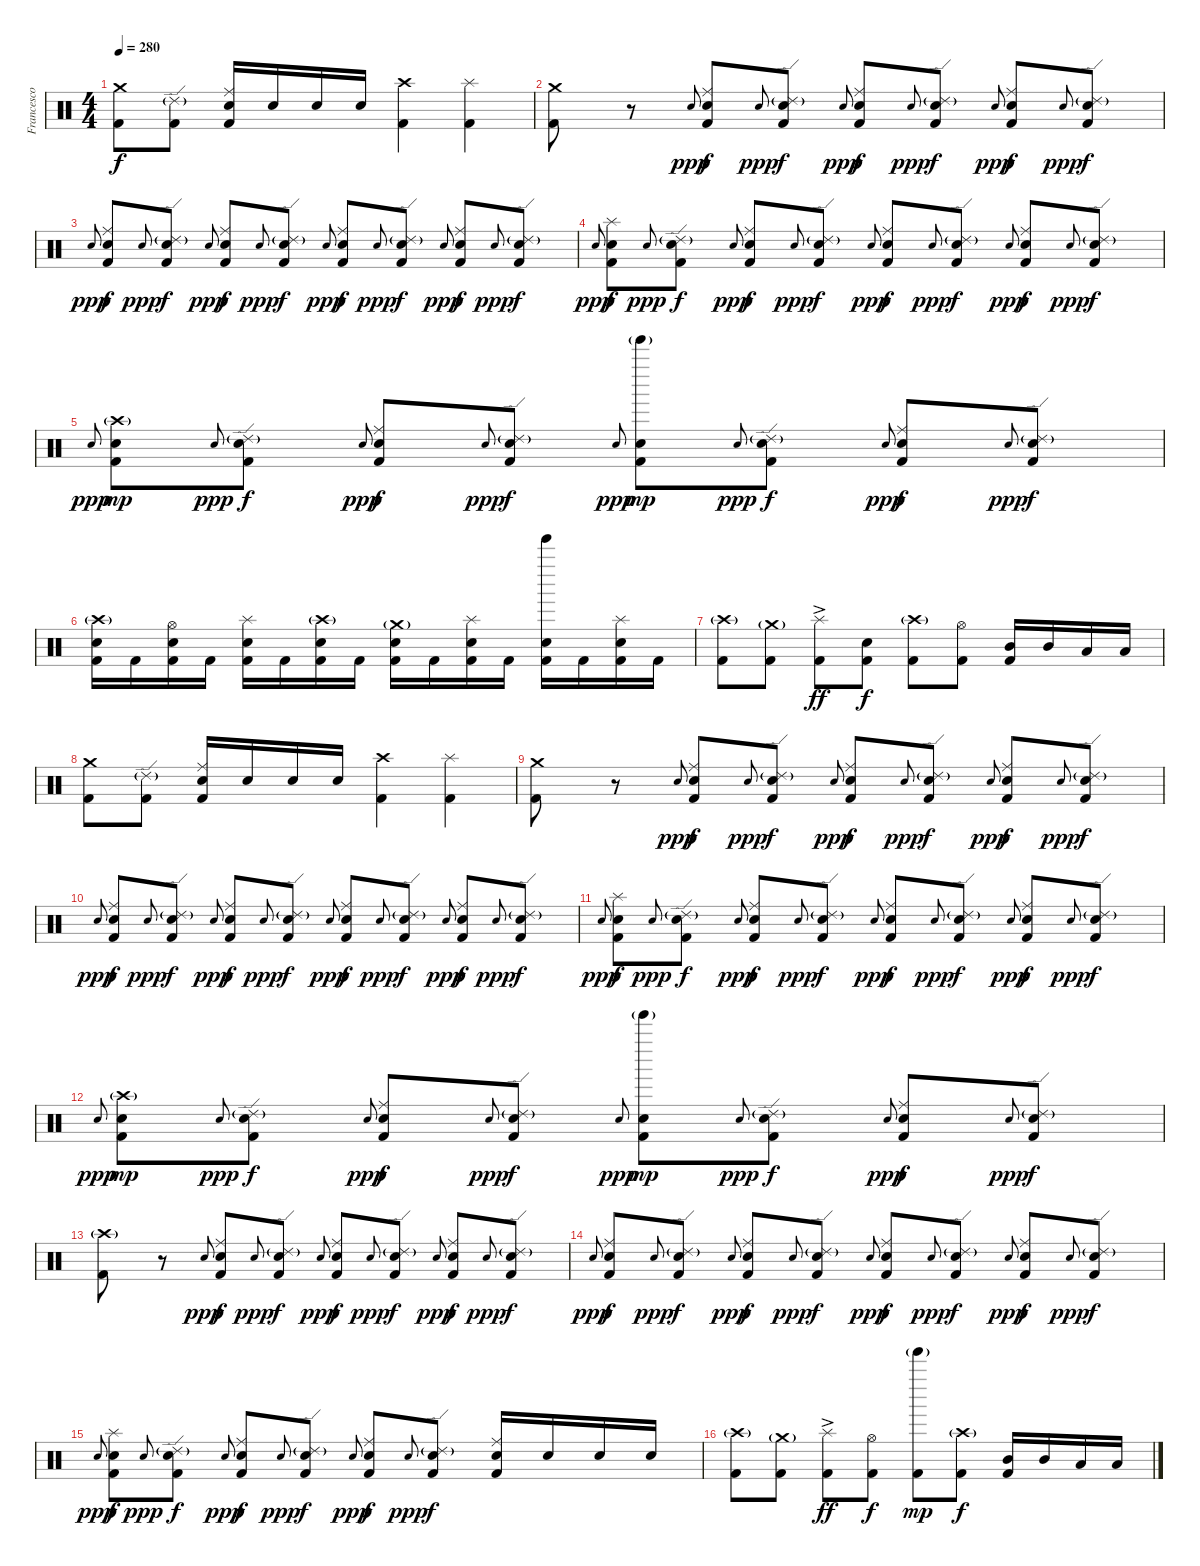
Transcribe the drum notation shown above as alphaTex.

\track ("Francesco Ferrini" "Francesco ") {instrument percussion}
\staff {score}
\articulation defaults
\ts (4 4)
\tempo 280
\clef neutral
\ks c
("Crash medium (hit)" "Kick (hit) 2").8{dy f} ("Ride (edge) 2"{g} "Kick (hit) 2").8 ("Ride (middle)" "Electric Snare (hit)" "Kick (hit) 2").16 "Electric Snare (hit)".16 "Electric Snare (hit)".16 "Electric Snare (hit)".16 ("Crash high (hit)" "Kick (hit) 2").4 ("Splash (hit)" "Kick (hit) 2").4 |
("Crash medium (hit)" "Kick (hit) 2").8 r.8 "Electric Snare (hit)"{h}.8{gr onbeat dy ppp} ("Ride (middle)" "Electric Snare (hit)" "Kick (hit) 2").8{dy f} "Electric Snare (hit)"{h}.8{gr onbeat dy ppp} ("Ride (edge) 2"{g} "Electric Snare (hit)" "Kick (hit) 2").8{dy f} "Electric Snare (hit)"{h}.8{gr onbeat dy ppp} ("Ride (middle)" "Electric Snare (hit)" "Kick (hit) 2").8{dy f} "Electric Snare (hit)"{h}.8{gr onbeat dy ppp} ("Ride (edge) 2"{g} "Electric Snare (hit)" "Kick (hit) 2").8{dy f} "Electric Snare (hit)"{h}.8{gr onbeat dy ppp} ("Ride (middle)" "Electric Snare (hit)" "Kick (hit) 2").8{dy f} "Electric Snare (hit)"{h}.8{gr onbeat dy ppp} ("Ride (edge) 2"{g} "Electric Snare (hit)" "Kick (hit) 2").8{dy f} |
"Electric Snare (hit)"{h}.8{gr onbeat dy ppp} ("Ride (middle)" "Electric Snare (hit)" "Kick (hit) 2").8{dy f} "Electric Snare (hit)"{h}.8{gr onbeat dy ppp} ("Ride (edge) 2"{g} "Electric Snare (hit)" "Kick (hit) 2").8{dy f} "Electric Snare (hit)"{h}.8{gr onbeat dy ppp} ("Ride (middle)" "Electric Snare (hit)" "Kick (hit) 2").8{dy f} "Electric Snare (hit)"{h}.8{gr onbeat dy ppp} ("Ride (edge) 2"{g} "Electric Snare (hit)" "Kick (hit) 2").8{dy f} "Electric Snare (hit)"{h}.8{gr onbeat dy ppp} ("Ride (middle)" "Electric Snare (hit)" "Kick (hit) 2").8{dy f} "Electric Snare (hit)"{h}.8{gr onbeat dy ppp} ("Ride (edge) 2"{g} "Electric Snare (hit)" "Kick (hit) 2").8{dy f} "Electric Snare (hit)"{h}.8{gr onbeat dy ppp} ("Ride (middle)" "Electric Snare (hit)" "Kick (hit) 2").8{dy f} "Electric Snare (hit)"{h}.8{gr onbeat dy ppp} ("Ride (edge) 2"{g} "Electric Snare (hit)" "Kick (hit) 2").8{dy f} |
"Electric Snare (hit)"{h}.8{gr onbeat dy ppp} ("Splash (hit)" "Electric Snare (hit)" "Kick (hit) 2").8{dy f} "Electric Snare (hit)"{h}.8{gr onbeat dy ppp} ("Ride (edge) 2"{g} "Electric Snare (hit)" "Kick (hit) 2").8{dy f} "Electric Snare (hit)"{h}.8{gr onbeat dy ppp} ("Ride (middle)" "Electric Snare (hit)" "Kick (hit) 2").8{dy f} "Electric Snare (hit)"{h}.8{gr onbeat dy ppp} ("Ride (edge) 2"{g} "Electric Snare (hit)" "Kick (hit) 2").8{dy f} "Electric Snare (hit)"{h}.8{gr onbeat dy ppp} ("Ride (middle)" "Electric Snare (hit)" "Kick (hit) 2").8{dy f} "Electric Snare (hit)"{h}.8{gr onbeat dy ppp} ("Ride (edge) 2"{g} "Electric Snare (hit)" "Kick (hit) 2").8{dy f} "Electric Snare (hit)"{h}.8{gr onbeat dy ppp} ("Ride (middle)" "Electric Snare (hit)" "Kick (hit) 2").8{dy f} "Electric Snare (hit)"{h}.8{gr onbeat dy ppp} ("Ride (edge) 2"{g} "Electric Snare (hit)" "Kick (hit) 2").8{dy f} |
"Electric Snare (hit)"{h}.8{gr onbeat dy ppp} ("Crash high (hit)"{g} "Electric Snare (hit)" "Kick (hit) 2").8{dy mp} "Electric Snare (hit)"{h}.8{gr onbeat dy ppp} ("Ride (edge) 2"{g} "Electric Snare (hit)" "Kick (hit) 2").8{dy f} "Electric Snare (hit)"{h}.8{gr onbeat dy ppp} ("Ride (middle)" "Electric Snare (hit)" "Kick (hit) 2").8{dy f} "Electric Snare (hit)"{h}.8{gr onbeat dy ppp} ("Ride (edge) 2"{g} "Electric Snare (hit)" "Kick (hit) 2").8{dy f} "Electric Snare (hit)"{h}.8{gr onbeat dy ppp} ("Tinkle Bell (hit)"{g} "Electric Snare (hit)" "Kick (hit) 2").8{dy mp} "Electric Snare (hit)"{h}.8{gr onbeat dy ppp} ("Ride (edge) 2"{g} "Electric Snare (hit)" "Kick (hit) 2").8{dy f} "Electric Snare (hit)"{h}.8{gr onbeat dy ppp} ("Ride (middle)" "Electric Snare (hit)" "Kick (hit) 2").8{dy f} "Electric Snare (hit)"{h}.8{gr onbeat dy ppp} ("Ride (edge) 2"{g} "Electric Snare (hit)" "Kick (hit) 2").8{dy f} |
("Crash high (hit)"{g} "Electric Snare (hit)" "Kick (hit) 2").16 "Kick (hit) 2".16 ("Hi-Hat (open)" "Electric Snare (hit)" "Kick (hit) 2").16 "Kick (hit) 2".16 ("Splash (hit)" "Electric Snare (hit)" "Kick (hit) 2").16 "Kick (hit) 2".16 ("Crash high (hit)"{g} "Electric Snare (hit)" "Kick (hit) 2").16 "Kick (hit) 2".16 ("Crash medium (hit)"{g} "Electric Snare (hit)" "Kick (hit) 2").16 "Kick (hit) 2".16 ("Splash (hit)" "Electric Snare (hit)" "Kick (hit) 2").16 "Kick (hit) 2".16 ("Tinkle Bell (hit)" "Electric Snare (hit)" "Kick (hit) 2").16 "Kick (hit) 2".16 ("Splash (hit)" "Electric Snare (hit)" "Kick (hit) 2").16 "Kick (hit) 2".16 |
("Crash high (hit)"{g} "Kick (hit) 2").8 ("Crash medium (hit)"{g} "Kick (hit) 2").8 ("Splash (hit)"{ac} "Kick (hit) 2").8{dy ff} ("Electric Snare (hit)" "Kick (hit) 2").8{dy f} ("Crash high (hit)"{g} "Kick (hit) 2").8 ("Hi-Hat (open)" "Kick (hit) 2").8 ("Mid Tom (hit)" "Kick (hit) 2").16 "Mid Tom (hit)".16 "Low Tom (hit)".16 "Low Tom (hit)".16 |
("Crash medium (hit)" "Kick (hit) 2").8 ("Ride (edge) 2"{g} "Kick (hit) 2").8 ("Ride (middle)" "Electric Snare (hit)" "Kick (hit) 2").16 "Electric Snare (hit)".16 "Electric Snare (hit)".16 "Electric Snare (hit)".16 ("Crash high (hit)" "Kick (hit) 2").4 ("Splash (hit)" "Kick (hit) 2").4 |
("Crash medium (hit)" "Kick (hit) 2").8 r.8 "Electric Snare (hit)"{h}.8{gr onbeat dy ppp} ("Ride (middle)" "Electric Snare (hit)" "Kick (hit) 2").8{dy f} "Electric Snare (hit)"{h}.8{gr onbeat dy ppp} ("Ride (edge) 2"{g} "Electric Snare (hit)" "Kick (hit) 2").8{dy f} "Electric Snare (hit)"{h}.8{gr onbeat dy ppp} ("Ride (middle)" "Electric Snare (hit)" "Kick (hit) 2").8{dy f} "Electric Snare (hit)"{h}.8{gr onbeat dy ppp} ("Ride (edge) 2"{g} "Electric Snare (hit)" "Kick (hit) 2").8{dy f} "Electric Snare (hit)"{h}.8{gr onbeat dy ppp} ("Ride (middle)" "Electric Snare (hit)" "Kick (hit) 2").8{dy f} "Electric Snare (hit)"{h}.8{gr onbeat dy ppp} ("Ride (edge) 2"{g} "Electric Snare (hit)" "Kick (hit) 2").8{dy f} |
"Electric Snare (hit)"{h}.8{gr onbeat dy ppp} ("Ride (middle)" "Electric Snare (hit)" "Kick (hit) 2").8{dy f} "Electric Snare (hit)"{h}.8{gr onbeat dy ppp} ("Ride (edge) 2"{g} "Electric Snare (hit)" "Kick (hit) 2").8{dy f} "Electric Snare (hit)"{h}.8{gr onbeat dy ppp} ("Ride (middle)" "Electric Snare (hit)" "Kick (hit) 2").8{dy f} "Electric Snare (hit)"{h}.8{gr onbeat dy ppp} ("Ride (edge) 2"{g} "Electric Snare (hit)" "Kick (hit) 2").8{dy f} "Electric Snare (hit)"{h}.8{gr onbeat dy ppp} ("Ride (middle)" "Electric Snare (hit)" "Kick (hit) 2").8{dy f} "Electric Snare (hit)"{h}.8{gr onbeat dy ppp} ("Ride (edge) 2"{g} "Electric Snare (hit)" "Kick (hit) 2").8{dy f} "Electric Snare (hit)"{h}.8{gr onbeat dy ppp} ("Ride (middle)" "Electric Snare (hit)" "Kick (hit) 2").8{dy f} "Electric Snare (hit)"{h}.8{gr onbeat dy ppp} ("Ride (edge) 2"{g} "Electric Snare (hit)" "Kick (hit) 2").8{dy f} |
"Electric Snare (hit)"{h}.8{gr onbeat dy ppp} ("Splash (hit)" "Electric Snare (hit)" "Kick (hit) 2").8{dy f} "Electric Snare (hit)"{h}.8{gr onbeat dy ppp} ("Ride (edge) 2"{g} "Electric Snare (hit)" "Kick (hit) 2").8{dy f} "Electric Snare (hit)"{h}.8{gr onbeat dy ppp} ("Ride (middle)" "Electric Snare (hit)" "Kick (hit) 2").8{dy f} "Electric Snare (hit)"{h}.8{gr onbeat dy ppp} ("Ride (edge) 2"{g} "Electric Snare (hit)" "Kick (hit) 2").8{dy f} "Electric Snare (hit)"{h}.8{gr onbeat dy ppp} ("Ride (middle)" "Electric Snare (hit)" "Kick (hit) 2").8{dy f} "Electric Snare (hit)"{h}.8{gr onbeat dy ppp} ("Ride (edge) 2"{g} "Electric Snare (hit)" "Kick (hit) 2").8{dy f} "Electric Snare (hit)"{h}.8{gr onbeat dy ppp} ("Ride (middle)" "Electric Snare (hit)" "Kick (hit) 2").8{dy f} "Electric Snare (hit)"{h}.8{gr onbeat dy ppp} ("Ride (edge) 2"{g} "Electric Snare (hit)" "Kick (hit) 2").8{dy f} |
"Electric Snare (hit)"{h}.8{gr onbeat dy ppp} ("Crash high (hit)"{g} "Electric Snare (hit)" "Kick (hit) 2").8{dy mp} "Electric Snare (hit)"{h}.8{gr onbeat dy ppp} ("Ride (edge) 2"{g} "Electric Snare (hit)" "Kick (hit) 2").8{dy f} "Electric Snare (hit)"{h}.8{gr onbeat dy ppp} ("Ride (middle)" "Electric Snare (hit)" "Kick (hit) 2").8{dy f} "Electric Snare (hit)"{h}.8{gr onbeat dy ppp} ("Ride (edge) 2"{g} "Electric Snare (hit)" "Kick (hit) 2").8{dy f} "Electric Snare (hit)"{h}.8{gr onbeat dy ppp} ("Tinkle Bell (hit)"{g} "Electric Snare (hit)" "Kick (hit) 2").8{dy mp} "Electric Snare (hit)"{h}.8{gr onbeat dy ppp} ("Ride (edge) 2"{g} "Electric Snare (hit)" "Kick (hit) 2").8{dy f} "Electric Snare (hit)"{h}.8{gr onbeat dy ppp} ("Ride (middle)" "Electric Snare (hit)" "Kick (hit) 2").8{dy f} "Electric Snare (hit)"{h}.8{gr onbeat dy ppp} ("Ride (edge) 2"{g} "Electric Snare (hit)" "Kick (hit) 2").8{dy f} |
("Crash high (hit)"{g} "Kick (hit) 2").8 r.8 "Electric Snare (hit)"{h}.8{gr onbeat dy ppp} ("Ride (middle)" "Electric Snare (hit)" "Kick (hit) 2").8{dy f} "Electric Snare (hit)"{h}.8{gr onbeat dy ppp} ("Ride (edge) 2"{g} "Electric Snare (hit)" "Kick (hit) 2").8{dy f} "Electric Snare (hit)"{h}.8{gr onbeat dy ppp} ("Ride (middle)" "Electric Snare (hit)" "Kick (hit) 2").8{dy f} "Electric Snare (hit)"{h}.8{gr onbeat dy ppp} ("Ride (edge) 2"{g} "Electric Snare (hit)" "Kick (hit) 2").8{dy f} "Electric Snare (hit)"{h}.8{gr onbeat dy ppp} ("Ride (middle)" "Electric Snare (hit)" "Kick (hit) 2").8{dy f} "Electric Snare (hit)"{h}.8{gr onbeat dy ppp} ("Ride (edge) 2"{g} "Electric Snare (hit)" "Kick (hit) 2").8{dy f} |
"Electric Snare (hit)"{h}.8{gr onbeat dy ppp} ("Ride (middle)" "Electric Snare (hit)" "Kick (hit) 2").8{dy f} "Electric Snare (hit)"{h}.8{gr onbeat dy ppp} ("Ride (edge) 2"{g} "Electric Snare (hit)" "Kick (hit) 2").8{dy f} "Electric Snare (hit)"{h}.8{gr onbeat dy ppp} ("Ride (middle)" "Electric Snare (hit)" "Kick (hit) 2").8{dy f} "Electric Snare (hit)"{h}.8{gr onbeat dy ppp} ("Ride (edge) 2"{g} "Electric Snare (hit)" "Kick (hit) 2").8{dy f} "Electric Snare (hit)"{h}.8{gr onbeat dy ppp} ("Ride (middle)" "Electric Snare (hit)" "Kick (hit) 2").8{dy f} "Electric Snare (hit)"{h}.8{gr onbeat dy ppp} ("Ride (edge) 2"{g} "Electric Snare (hit)" "Kick (hit) 2").8{dy f} "Electric Snare (hit)"{h}.8{gr onbeat dy ppp} ("Ride (middle)" "Electric Snare (hit)" "Kick (hit) 2").8{dy f} "Electric Snare (hit)"{h}.8{gr onbeat dy ppp} ("Ride (edge) 2"{g} "Electric Snare (hit)" "Kick (hit) 2").8{dy f} |
"Electric Snare (hit)"{h}.8{gr onbeat dy ppp} ("Splash (hit)" "Electric Snare (hit)" "Kick (hit) 2").8{dy f} "Electric Snare (hit)"{h}.8{gr onbeat dy ppp} ("Ride (edge) 2"{g} "Electric Snare (hit)" "Kick (hit) 2").8{dy f} "Electric Snare (hit)"{h}.8{gr onbeat dy ppp} ("Ride (middle)" "Electric Snare (hit)" "Kick (hit) 2").8{dy f} "Electric Snare (hit)"{h}.8{gr onbeat dy ppp} ("Ride (edge) 2"{g} "Electric Snare (hit)" "Kick (hit) 2").8{dy f} "Electric Snare (hit)"{h}.8{gr onbeat dy ppp} ("Ride (middle)" "Electric Snare (hit)" "Kick (hit) 2").8{dy f} "Electric Snare (hit)"{h}.8{gr onbeat dy ppp} ("Ride (edge) 2"{g} "Electric Snare (hit)" "Kick (hit) 2").8{dy f} ("Ride (middle)" "Electric Snare (hit)" "Kick (hit) 2").16 "Electric Snare (hit)".16 "Electric Snare (hit)".16 "Electric Snare (hit)".16 |
("Crash high (hit)"{g} "Kick (hit) 2").8 ("Crash medium (hit)"{g} "Kick (hit) 2").8 ("Splash (hit)"{ac} "Kick (hit) 2").8{dy ff} ("Hi-Hat (open)" "Kick (hit) 2").8{dy f} ("Tinkle Bell (hit)"{g} "Kick (hit) 2").8{dy mp} ("Crash high (hit)"{g} "Kick (hit) 2").8{dy f} ("Mid Tom (hit)" "Kick (hit) 2").16 "Mid Tom (hit)".16 "Low Tom (hit)".16 "Low Tom (hit)".16
